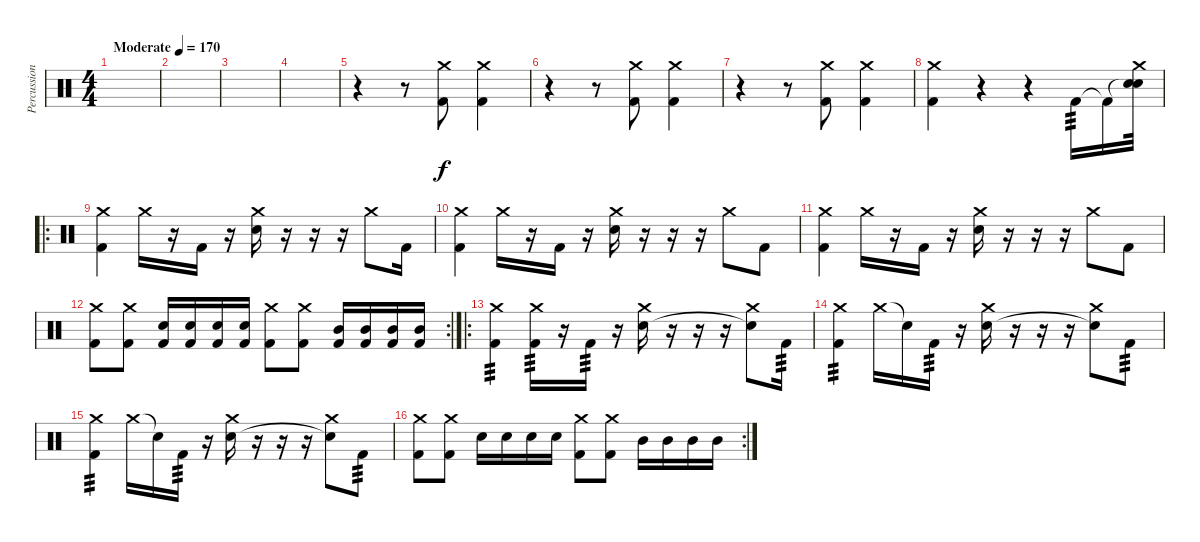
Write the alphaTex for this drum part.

\track ("Percussion" "Percussion") {instrument percussion}
\staff {score}
\articulation defaults
\ts (4 4)
\tempo (170 "Moderate")
\clef neutral
\ks c
|
|
|
|
r.4 r.8 ("Kick (hit) 2" "Crash medium (hit)").8 ("Kick (hit) 2" "Crash medium (hit)").4 |
r.4 r.8 ("Kick (hit) 2" "Crash medium (hit)").8 ("Kick (hit) 2" "Crash medium (hit)").4 |
r.4 r.8 ("Kick (hit) 2" "Crash medium (hit)").8 ("Kick (hit) 2" "Crash medium (hit)").4 |
("Kick (hit) 2" "Crash medium (hit)").4 r.4 r.4 "Kick (hit) 2".16{tp 3} "Kick (hit) 2"{t}.16 ("Snare (hit)"{t} "Electric Snare (hit)" "Crash medium (hit)").32 |
\ro
("Kick (hit) 2" "Crash medium (hit)").4 "Crash medium (hit)".16 r.16 "Kick (hit) 2".16 r.16 ("Electric Snare (hit)" "Crash medium (hit)").16 r.16 r.16 r.16 "Crash medium (hit)".8 "Kick (hit) 2".16 |
("Kick (hit) 2" "Crash medium (hit)").4 "Crash medium (hit)".16 r.16 "Kick (hit) 2".16 r.16 ("Electric Snare (hit)" "Crash medium (hit)").16 r.16 r.16 r.16 "Crash medium (hit)".8 "Kick (hit) 2".8 |
("Kick (hit) 2" "Crash medium (hit)").4 "Crash medium (hit)".16 r.16 "Kick (hit) 2".16 r.16 ("Electric Snare (hit)" "Crash medium (hit)").16 r.16 r.16 r.16 "Crash medium (hit)".8 "Kick (hit) 2".8 |
\rc 2
("Kick (hit) 2" "Crash medium (hit)").8 ("Kick (hit) 2" "Crash medium (hit)").8 ("Electric Snare (hit)" "Kick (hit) 2").16 ("Electric Snare (hit)" "Kick (hit) 2").16 ("Electric Snare (hit)" "Kick (hit) 2").16 ("Electric Snare (hit)" "Kick (hit) 2").16 ("Kick (hit) 2" "Crash medium (hit)").8 ("Kick (hit) 2" "Crash medium (hit)").8 ("Mid Tom (hit)" "Kick (hit) 2").16 ("Mid Tom (hit)" "Kick (hit) 2").16 ("Mid Tom (hit)" "Kick (hit) 2").16 ("Mid Tom (hit)" "Kick (hit) 2").16 |
\ro
("Kick (hit) 2" "Crash medium (hit)").4{tp 3} ("Kick (hit) 2" "Crash medium (hit)").16{tp 3} r.16 "Kick (hit) 2".16{tp 3} r.16 ("Electric Snare (hit)" "Crash medium (hit)").16 r.16 r.16 r.16 ("Snare (hit)"{t} "Crash medium (hit)").8 "Kick (hit) 2".16{tp 3} |
("Kick (hit) 2" "Crash medium (hit)").4{tp 3} "Crash medium (hit)".16 "Snare (hit)"{t}.16 "Kick (hit) 2".16{tp 3} r.16 ("Electric Snare (hit)" "Crash medium (hit)").16 r.16 r.16 r.16 ("Snare (hit)"{t} "Crash medium (hit)").8 "Kick (hit) 2".8{tp 3} |
("Kick (hit) 2" "Crash medium (hit)").4{tp 3} "Crash medium (hit)".16 "Snare (hit)"{t}.16 "Kick (hit) 2".16{tp 3} r.16 ("Electric Snare (hit)" "Crash medium (hit)").16 r.16 r.16 r.16 ("Snare (hit)"{t} "Crash medium (hit)").8 "Kick (hit) 2".8{tp 3} |
\rc 2
("Kick (hit) 2" "Crash medium (hit)").8 ("Kick (hit) 2" "Crash medium (hit)").8 "Electric Snare (hit)".16 "Electric Snare (hit)".16 "Electric Snare (hit)".16 "Electric Snare (hit)".16 ("Kick (hit) 2" "Crash medium (hit)").8 ("Kick (hit) 2" "Crash medium (hit)").8 "Mid Tom (hit)".16 "Mid Tom (hit)".16 "Mid Tom (hit)".16 "Mid Tom (hit)".16
